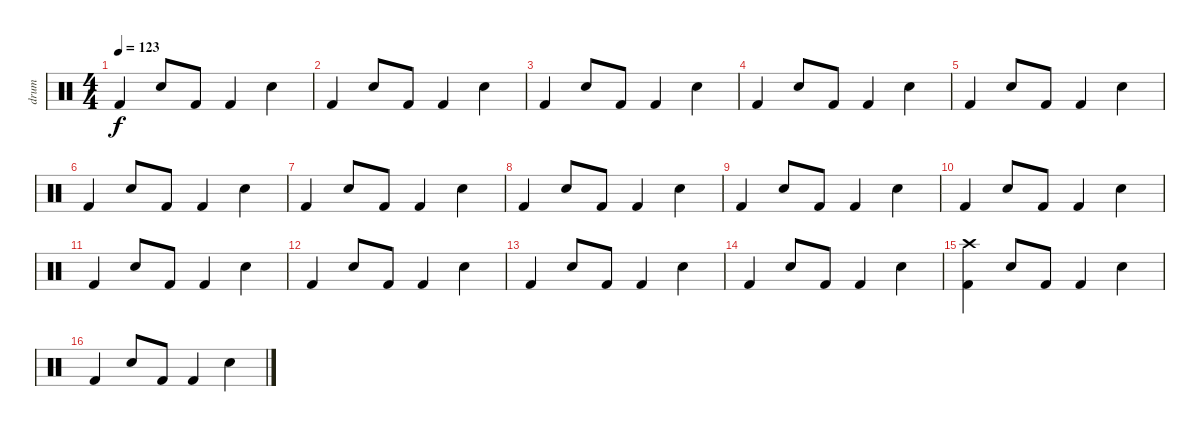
\track ("drum" "drum") {instrument percussion}
\staff {score}
\articulation defaults
\ts (4 4)
\tempo 123
\clef neutral
\ks c "Kick (hit) 2".4{dy f} "Snare (hit) 2".8 "Kick (hit) 2".8 "Kick (hit) 2".4 "Snare (hit) 2".4
|
"Kick (hit) 2".4 "Snare (hit) 2".8 "Kick (hit) 2".8 "Kick (hit) 2".4 "Snare (hit) 2".4 |
"Kick (hit) 2".4 "Snare (hit) 2".8 "Kick (hit) 2".8 "Kick (hit) 2".4 "Snare (hit) 2".4 |
"Kick (hit) 2".4 "Snare (hit) 2".8 "Kick (hit) 2".8 "Kick (hit) 2".4 "Snare (hit) 2".4 |
"Kick (hit) 2".4 "Snare (hit) 2".8 "Kick (hit) 2".8 "Kick (hit) 2".4 "Snare (hit) 2".4 |
"Kick (hit) 2".4 "Snare (hit) 2".8 "Kick (hit) 2".8 "Kick (hit) 2".4 "Snare (hit) 2".4 |
"Kick (hit) 2".4 "Snare (hit) 2".8 "Kick (hit) 2".8 "Kick (hit) 2".4 "Snare (hit) 2".4 |
"Kick (hit) 2".4 "Snare (hit) 2".8 "Kick (hit) 2".8 "Kick (hit) 2".4 "Snare (hit) 2".4 |
"Kick (hit) 2".4 "Snare (hit) 2".8 "Kick (hit) 2".8 "Kick (hit) 2".4 "Snare (hit) 2".4 |
"Kick (hit) 2".4 "Snare (hit) 2".8 "Kick (hit) 2".8 "Kick (hit) 2".4 "Snare (hit) 2".4 |
"Kick (hit) 2".4 "Snare (hit) 2".8 "Kick (hit) 2".8 "Kick (hit) 2".4 "Snare (hit) 2".4 |
"Kick (hit) 2".4 "Snare (hit) 2".8 "Kick (hit) 2".8 "Kick (hit) 2".4 "Snare (hit) 2".4 |
"Kick (hit) 2".4 "Snare (hit) 2".8 "Kick (hit) 2".8 "Kick (hit) 2".4 "Snare (hit) 2".4 |
"Kick (hit) 2".4 "Snare (hit) 2".8 "Kick (hit) 2".8 "Kick (hit) 2".4 "Snare (hit) 2".4 |
("Kick (hit) 2" "Crash high (hit)").4 "Snare (hit) 2".8 "Kick (hit) 2".8 "Kick (hit) 2".4 "Snare (hit) 2".4 |
"Kick (hit) 2".4 "Snare (hit) 2".8 "Kick (hit) 2".8 "Kick (hit) 2".4 "Snare (hit) 2".4
